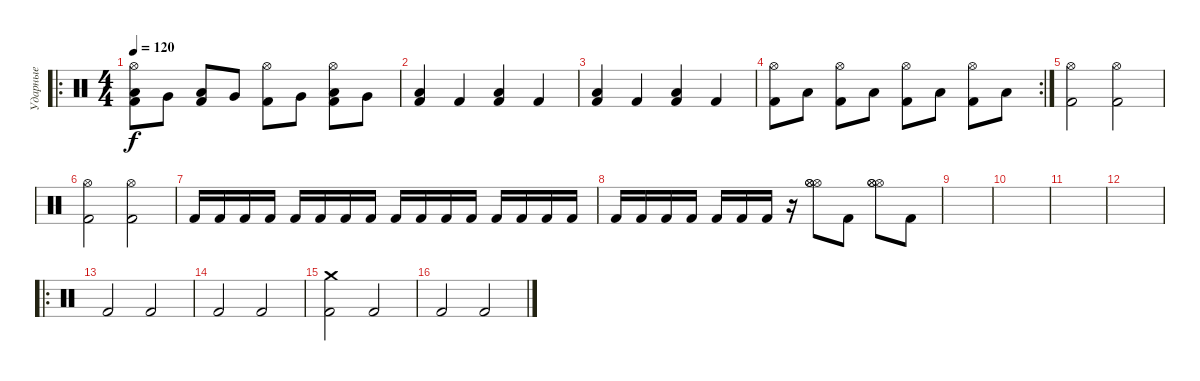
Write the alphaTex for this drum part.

\track ("Ударные" "Ударные") {instrument percussion}
\staff {score}
\articulation defaults
\ro
\ts (4 4)
\tempo 120
\clef neutral
\ks c
("Hi-Hat (open)" "Low Tom (hit)" "Kick (hit) 2").8{dy f} "Very Low Tom (hit)".8 ("Low Tom (hit)" "Kick (hit) 2").8 "Very Low Tom (hit)".8 ("Hi-Hat (open)" "Kick (hit) 2").8 "Very Low Tom (hit)".8 ("Hi-Hat (open)" "Low Tom (hit)" "Kick (hit) 2").8 "Very Low Tom (hit)".8 |
("Low Tom (hit)" "Kick (hit) 2").4 "Kick (hit) 2".4 ("Low Tom (hit)" "Kick (hit) 2").4 "Kick (hit) 2".4 |
("Low Tom (hit)" "Kick (hit) 2").4 "Kick (hit) 2".4 ("Low Tom (hit)" "Kick (hit) 2").4 "Kick (hit) 2".4 |
\rc 2
("Hi-Hat (open)" "Kick (hit) 2").8 "Low Tom (hit)".8 ("Hi-Hat (open)" "Kick (hit) 2").8 "Low Tom (hit)".8 ("Hi-Hat (open)" "Kick (hit) 2").8 "Low Tom (hit)".8 ("Hi-Hat (open)" "Kick (hit) 2").8 "Low Tom (hit)".8 |
("Kick (hit) 2" "Hi-Hat (open)").2 ("Kick (hit) 2" "Hi-Hat (open)").2 |
("Kick (hit) 2" "Hi-Hat (open)").2 ("Kick (hit) 2" "Hi-Hat (open)").2 |
"Kick (hit) 2".16 "Kick (hit) 2".16 "Kick (hit) 2".16 "Kick (hit) 2".16 "Kick (hit) 2".16 "Kick (hit) 2".16 "Kick (hit) 2".16 "Kick (hit) 2".16 "Kick (hit) 2".16 "Kick (hit) 2".16 "Kick (hit) 2".16 "Kick (hit) 2".16 "Kick (hit) 2".16 "Kick (hit) 2".16 "Kick (hit) 2".16 "Kick (hit) 2".16 |
"Kick (hit) 2".16 "Kick (hit) 2".16 "Kick (hit) 2".16 "Kick (hit) 2".16 "Kick (hit) 2".16 "Kick (hit) 2".16 "Kick (hit) 2".16 r.16 ("Hi-Hat (open)" "Hi-Hat (open)" "Hi-Hat (open)").8 "Kick (hit) 2".8 ("Hi-Hat (open)" "Hi-Hat (open)" "Hi-Hat (open)").8 "Kick (hit) 2".8 |
|
|
|
|
\ro "Kick (hit) 2".2 "Kick (hit) 2".2
|
"Kick (hit) 2".2 "Kick (hit) 2".2 |
("Crash medium (hit)" "Kick (hit) 2").2 "Kick (hit) 2".2 |
"Kick (hit) 2".2 "Kick (hit) 2".2
